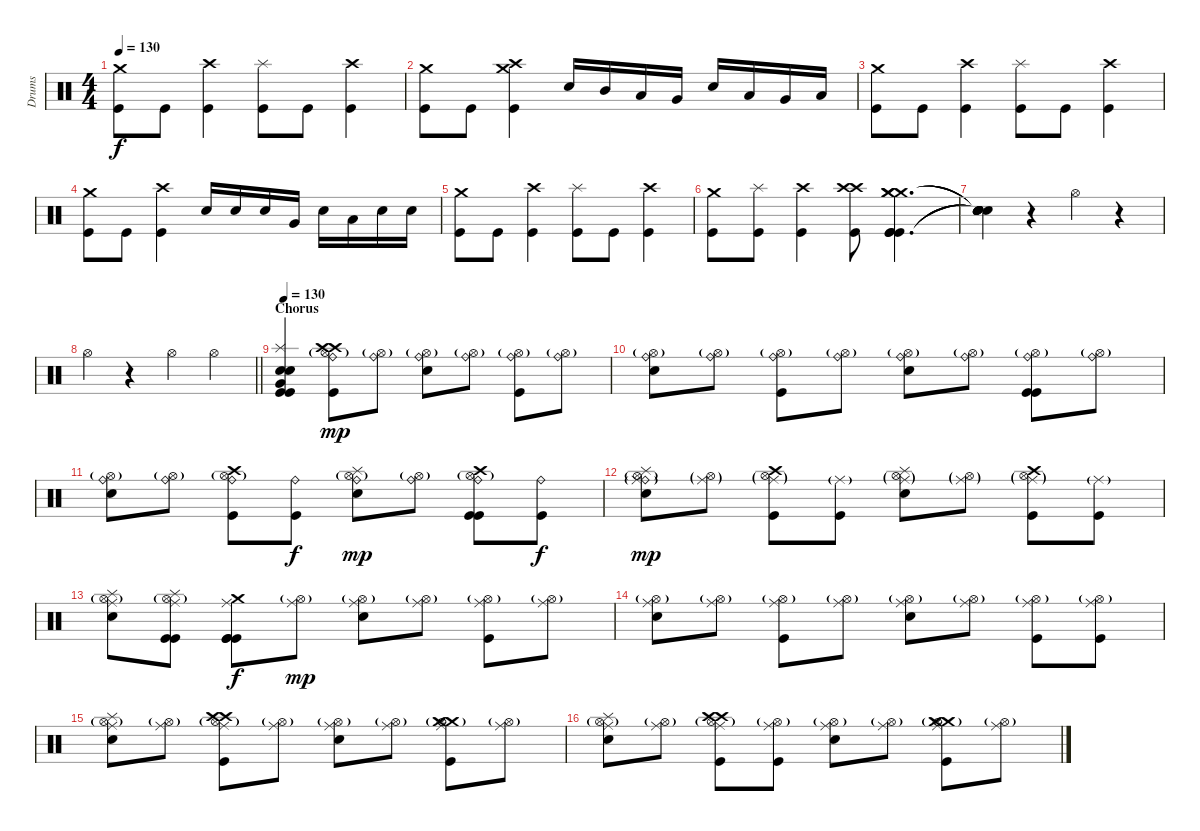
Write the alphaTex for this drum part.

\track ("Drums" "Drums") {instrument percussion}
\staff {score}
\articulation defaults
\ts (4 4)
\tempo 130
\clef neutral
\ks c
("Crash medium (hit)" "Kick (hit)").8{dy f} "Kick (hit)".8 ("Crash high (hit)" "Kick (hit)").4 ("Splash (hit)" "Kick (hit)").8 "Kick (hit)".8 ("Crash high (hit)" "Kick (hit)").4 |
("Crash medium (hit)" "Kick (hit)").8 "Kick (hit)".8 ("Crash high (hit)" "Crash medium (hit)" "Kick (hit)").4 "Snare (hit) 2".16 "Mid Tom (hit)".16 "Low Tom (hit)".16 "Very Low Tom (hit)".16 "Electric Snare (hit)".16 "Low Tom (hit)".16 "Very Low Tom (hit)".16 "Low Floor Tom (hit)".16 |
("Crash medium (hit)" "Kick (hit)").8 "Kick (hit)".8 ("Crash high (hit)" "Kick (hit)").4 ("Splash (hit)" "Kick (hit)").8 "Kick (hit)".8 ("Crash high (hit)" "Kick (hit)").4 |
("Crash medium (hit)" "Kick (hit)").8 "Kick (hit)".8 ("Crash high (hit)" "Kick (hit)").4 "Snare (hit) 2".16 "Snare (hit) 2".16 "Snare (hit) 2".16 "Very Low Tom (hit)".16 "Electric Snare (hit)".16 "Low Tom (hit)".16 "Electric Snare (hit)".16 "Electric Snare (hit)".16 |
("Crash medium (hit)" "Kick (hit)").8 "Kick (hit)".8 ("Crash high (hit)" "Kick (hit)").4 ("Splash (hit)" "Kick (hit)").8 "Kick (hit)".8 ("Crash high (hit)" "Kick (hit)").4 |
("Crash medium (hit)" "Kick (hit)").8 ("Splash (hit)" "Kick (hit)").8 ("Crash high (hit)" "Kick (hit)").4 ("Crash high (hit)" "Crash high (hit)" "Kick (hit)").8 ("Crash medium (hit)" "Crash medium (hit)" "Crash medium (hit)" "Kick (hit)" "Kick (hit)" "Kick (hit)").4{d} |
("Snare (hit)"{t} "Snare (hit)"{t} "Snare (hit)"{t} "Snare (hit)"{t} "Snare (hit)"{t} "Snare (hit)"{t}).4 r.4 "Hi-Hat (open)".4 r.4 |
\barLineRight lightlight "Hi-Hat (open)".4
r.4 "Hi-Hat (open)".4 "Hi-Hat (open)".4 |
\section ("" "Chorus")
\tempo 130
("Splash (hit)" "Snare (hit) 2" "Very Low Tom (hit)" "Snare (hit) 2" "Kick (hit)" "Kick (hit)").4 ("Crash high (hit)" "Crash high (hit)" "Ride (bell)" "Hi-Hat (open)"{g} "Kick (hit)").8{dy mp} ("Ride (bell)" "Hi-Hat (open)"{g}).8 ("Ride (bell)" "Hi-Hat (open)"{g} "Snare (hit) 2").8 ("Ride (bell)" "Hi-Hat (open)"{g}).8 ("Ride (bell)" "Hi-Hat (open)"{g} "Kick (hit)").8 ("Ride (bell)" "Hi-Hat (open)"{g}).8 |
("Ride (bell)" "Hi-Hat (open)"{g} "Snare (hit) 2").8 ("Ride (bell)" "Hi-Hat (open)"{g}).8 ("Ride (bell)" "Hi-Hat (open)"{g} "Kick (hit)").8 ("Ride (bell)" "Hi-Hat (open)"{g}).8 ("Ride (bell)" "Hi-Hat (open)"{g} "Snare (hit) 2").8 ("Ride (bell)" "Hi-Hat (open)"{g}).8 ("Ride (bell)" "Hi-Hat (open)"{g} "Kick (hit)" "Kick (hit)").8 ("Ride (bell)" "Hi-Hat (open)"{g}).8 |
("Ride (bell)" "Hi-Hat (open)"{g} "Snare (hit) 2").8 ("Ride (bell)" "Hi-Hat (open)"{g}).8 ("Crash high (hit)" "Ride (bell)" "Hi-Hat (open)"{g} "Kick (hit)").8 ("Ride (bell)" "Kick (hit)").8{dy f} ("Splash (hit)" "Ride (bell)" "Hi-Hat (open)"{g} "Snare (hit) 2").8{dy mp} ("Ride (bell)" "Hi-Hat (open)"{g}).8 ("Crash high (hit)" "Ride (bell)" "Hi-Hat (open)"{g} "Kick (hit)" "Kick (hit)").8 ("Ride (bell)" "Kick (hit)").8{dy f} |
("Ride (bell)" "Splash (hit)" "Hi-Hat (open)"{g} "Snare (hit) 2" "Ride (middle)"{g}).8{dy mp} ("Hi-Hat (open)"{g} "Ride (middle)"{g}).8 ("Crash high (hit)" "Hi-Hat (open)"{g} "Kick (hit)" "Ride (middle)"{g}).8 ("Kick (hit)" "Ride (middle)"{g}).8 ("Splash (hit)" "Hi-Hat (open)"{g} "Snare (hit) 2" "Ride (middle)"{g}).8 ("Hi-Hat (open)"{g} "Ride (middle)"{g}).8 ("Crash high (hit)" "Hi-Hat (open)"{g} "Kick (hit)" "Ride (middle)"{g}).8 ("Kick (hit)" "Ride (middle)"{g}).8 |
("Splash (hit)" "Ride (middle)" "Hi-Hat (open)"{g} "Snare (hit) 2").8 ("Splash (hit)" "Ride (middle)" "Hi-Hat (open)"{g} "Kick (hit)" "Kick (hit)").8 ("Crash medium (hit)" "Ride (middle)" "Kick (hit)" "Kick (hit)" "Kick (hit)").8{dy f} ("Ride (middle)" "Hi-Hat (open)"{g}).8{dy mp} ("Ride (middle)" "Hi-Hat (open)"{g} "Snare (hit) 2").8 ("Ride (middle)" "Hi-Hat (open)"{g}).8 ("Ride (middle)" "Hi-Hat (open)"{g} "Kick (hit)").8 ("Ride (middle)" "Hi-Hat (open)"{g}).8 |
("Ride (middle)" "Hi-Hat (open)"{g} "Snare (hit) 2").8 ("Ride (middle)" "Hi-Hat (open)"{g}).8 ("Ride (middle)" "Hi-Hat (open)"{g} "Kick (hit)").8 ("Ride (middle)" "Hi-Hat (open)"{g}).8 ("Ride (middle)" "Hi-Hat (open)"{g} "Snare (hit) 2").8 ("Ride (middle)" "Hi-Hat (open)"{g}).8 ("Ride (middle)" "Hi-Hat (open)"{g} "Kick (hit)").8 ("Ride (middle)" "Hi-Hat (open)"{g} "Kick (hit)").8 |
("Ride (middle)" "Splash (hit)" "Hi-Hat (open)"{g} "Snare (hit) 2").8 ("Ride (middle)" "Hi-Hat (open)"{g}).8 ("Ride (middle)" "Crash high (hit)" "Hi-Hat (open)"{g} "Crash high (hit)" "Kick (hit)").8 ("Ride (middle)" "Hi-Hat (open)"{g}).8 ("Ride (middle)" "Hi-Hat (open)"{g} "Snare (hit) 2").8 ("Ride (middle)" "Hi-Hat (open)"{g}).8 ("Ride (middle)" "Crash medium (hit)" "Hi-Hat (open)"{g} "Crash medium (hit)" "Kick (hit)").8 ("Ride (middle)" "Hi-Hat (open)"{g}).8 |
("Ride (middle)" "Splash (hit)" "Hi-Hat (open)"{g} "Snare (hit) 2").8 ("Ride (middle)" "Hi-Hat (open)"{g}).8 ("Ride (middle)" "Crash high (hit)" "Hi-Hat (open)"{g} "Crash high (hit)" "Kick (hit)").8 ("Ride (middle)" "Hi-Hat (open)"{g} "Kick (hit)").8 ("Ride (middle)" "Hi-Hat (open)"{g} "Snare (hit) 2").8 ("Ride (middle)" "Hi-Hat (open)"{g}).8 ("Ride (middle)" "Crash medium (hit)" "Hi-Hat (open)"{g} "Crash medium (hit)" "Kick (hit)").8 ("Ride (middle)" "Hi-Hat (open)"{g}).8
